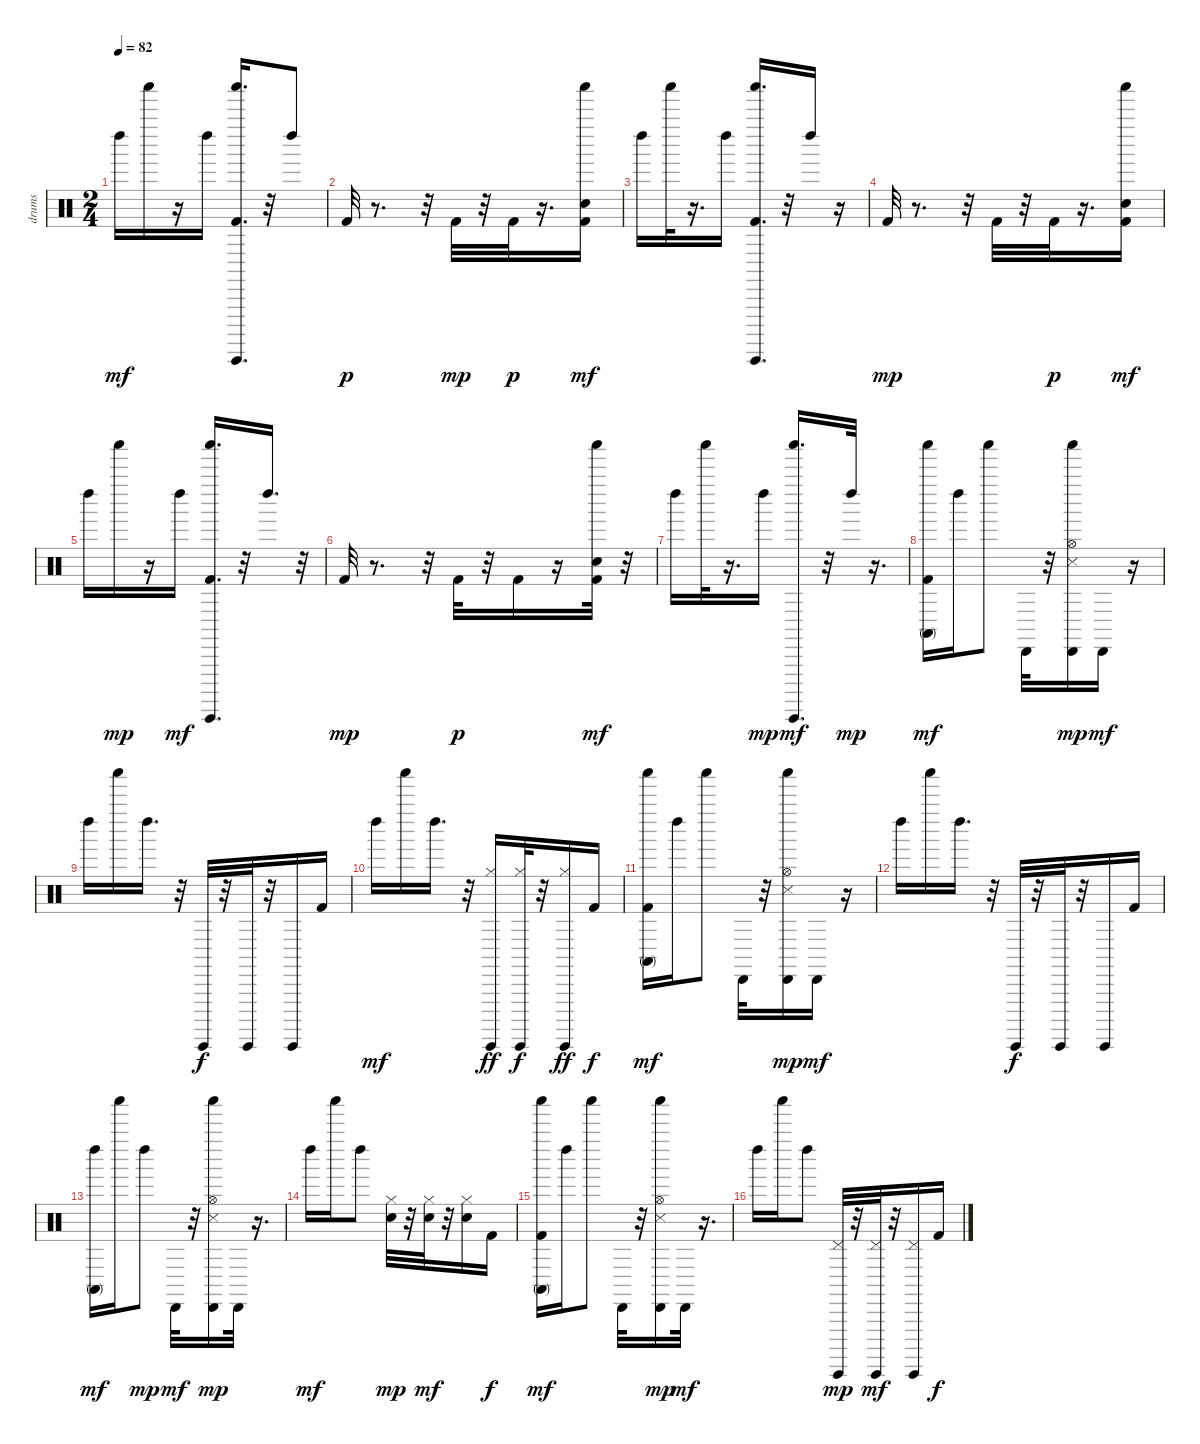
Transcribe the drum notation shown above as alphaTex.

\track ("drums" "drums") {instrument percussion}
\staff {score}
\articulation defaults
\ts (2 4)
\tempo 82
\clef neutral
\ks c "Left Maraca (hit)".16{dy mf} "Shaker (hit)".16
r.16 "Left Maraca (hit)".16 ("Kick (hit) 2" "Guiro (hit)" "Shaker (hit)").16{d} r.32 "Left Maraca (hit)".8 |
"Kick (hit) 2".32{dy p} r.8{d} r.32 "Kick (hit) 2".32{dy mp} r.32 "Kick (hit) 2".32{dy p} r.16{d} ("Kick (hit) 2" "Hand Clap (hit)" "Shaker (hit)").16{dy mf} |
"Left Maraca (hit)".16 "Shaker (hit)".32 r.16{d} "Left Maraca (hit)".16 ("Kick (hit) 2" "Guiro (hit)" "Shaker (hit)").16{d} r.32 "Left Maraca (hit)".16 r.16 |
"Kick (hit) 2".32{dy mp} r.8{d} r.32 "Kick (hit) 2".32 r.32 "Kick (hit) 2".32{dy p} r.16{d} ("Kick (hit) 2" "Hand Clap (hit)" "Shaker (hit)").16{dy mf} |
"Left Maraca (hit)".16 "Shaker (hit)".16{dy mp} r.16 "Left Maraca (hit)".16{dy mf} ("Kick (hit) 2" "Guiro (hit)" "Shaker (hit)").16{d} r.32 "Left Maraca (hit)".16{d} r.32 |
"Kick (hit) 2".32{dy mp} r.8{d} r.32 "Kick (hit) 2".32{dy p} r.32 "Kick (hit) 2".16 r.16 ("Kick (hit) 2" "Hand Clap (hit)" "Shaker (hit)").32{dy mf} r.32 |
"Left Maraca (hit)".16 "Shaker (hit)".32 r.16{d} "Left Maraca (hit)".16{dy mp} ("Guiro (hit)" "Shaker (hit)").16{d dy mf} r.32 "Left Maraca (hit)".32{dy mp} r.16{d} |
("Kick (hit) 2" "Shaker (hit)" "Conga high (mute)").16{dy mf} "Left Maraca (hit)".16 "Shaker (hit)".8 "Cabasa (hit)".32 r.32 ("Snare (side stick) 3" "Shaker (hit)" "Hi-Hat (open)" "Cabasa (hit)").16{dy mp} "Cabasa (hit)".16{dy mf} r.16 |
"Left Maraca (hit)".16 "Shaker (hit)".16 "Left Maraca (hit)".16{d} r.32 "Guiro (hit)".32{dy f} r.32 "Guiro (hit)".32 r.32 "Guiro (hit)".16 "Kick (hit) 2".16 |
"Left Maraca (hit)".16{dy mf} "Shaker (hit)".16 "Left Maraca (hit)".16{d} r.32 ("Hi-Hat (closed)" "Guiro (hit)").16{dy ff} ("Guiro (hit)" "Hi-Hat (closed)").32{dy f} r.32 ("Guiro (hit)" "Hi-Hat (closed)").16{dy ff} "Kick (hit) 2".16{dy f} |
("Kick (hit) 2" "Shaker (hit)" "Conga high (mute)").16{dy mf} "Left Maraca (hit)".16 "Shaker (hit)".8 "Cabasa (hit)".32 r.32 ("Snare (side stick) 3" "Shaker (hit)" "Hi-Hat (open)" "Cabasa (hit)").16{dy mp} "Cabasa (hit)".16{dy mf} r.16 |
"Left Maraca (hit)".16 "Shaker (hit)".16 "Left Maraca (hit)".16{d} r.32 "Guiro (hit)".32{dy f} r.32 "Guiro (hit)".32 r.32 "Guiro (hit)".16 "Kick (hit) 2".16 |
("Left Maraca (hit)" "Conga high (mute)").16{dy mf} "Shaker (hit)".16 "Left Maraca (hit)".8{dy mp} "Cabasa (hit)".32{dy mf} r.32 ("Snare (side stick) 3" "Shaker (hit)" "Hi-Hat (open)" "Cabasa (hit)").16{dy mp} "Cabasa (hit)".32 r.16{d} |
"Left Maraca (hit)".16{dy mf} "Shaker (hit)".16 "Left Maraca (hit)".8 ("Hand Clap (hit)" "Hi-Hat (closed)").32{dy mp} r.32 ("Hi-Hat (closed)" "Hand Clap (hit)").32{dy mf} r.32 ("Hi-Hat (closed)" "Hand Clap (hit)").16 "Kick (hit) 2".16{dy f} |
("Kick (hit) 2" "Shaker (hit)" "Conga high (mute)").16{dy mf} "Left Maraca (hit)".16 "Shaker (hit)".8 "Cabasa (hit)".32 r.32 ("Cabasa (hit)" "Hi-Hat (open)" "Shaker (hit)" "Snare (side stick) 3").16{dy mp} "Cabasa (hit)".32{dy mf} r.16{d} |
"Left Maraca (hit)".16 "Shaker (hit)".16 "Left Maraca (hit)".8 ("Pedal Hi-Hat (hit)" "Guiro (hit)").32{dy mp} r.32 ("Guiro (hit)" "Pedal Hi-Hat (hit)").32{dy mf} r.32 ("Guiro (hit)" "Pedal Hi-Hat (hit)").16 "Kick (hit) 2".16{dy f}
